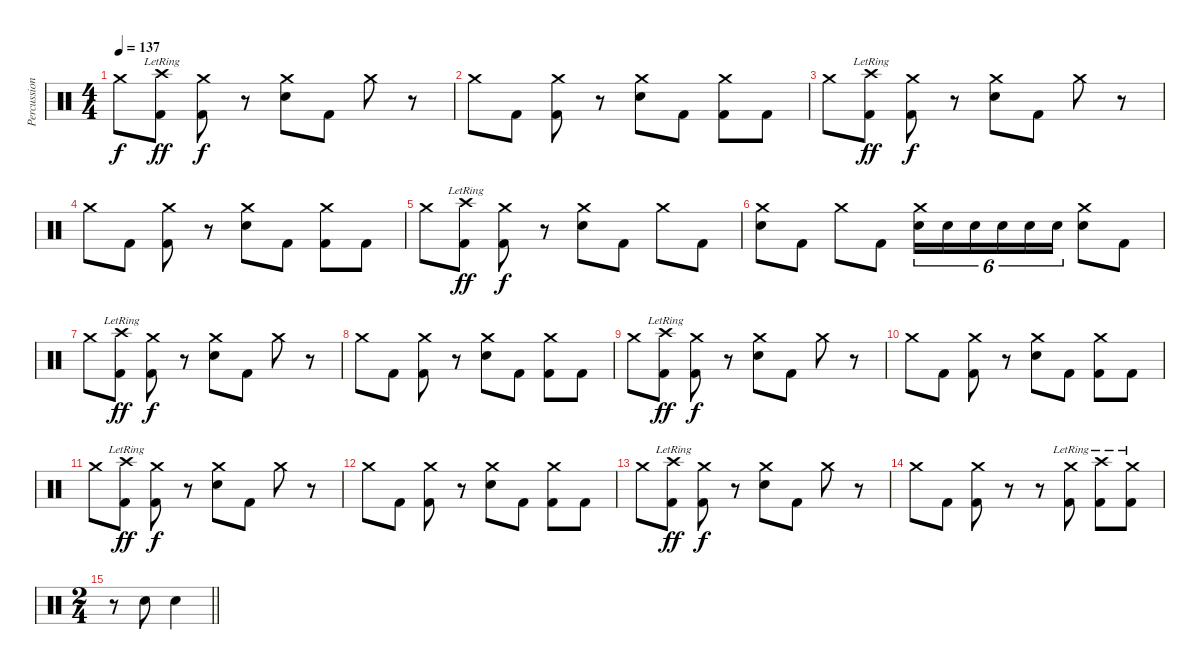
\track ("Percussions" "Percussion") {instrument percussion}
\staff {score}
\articulation defaults
\ts (4 4)
\tempo 137
\clef neutral
\ks c "Crash medium (hit)".8{dy f}
("Crash high (hit)"{lr} "Kick (hit) 2").8{dy ff} ("Crash medium (hit)" "Kick (hit) 2").8{dy f} r.8 ("Crash medium (hit)" "Electric Snare (hit)").8 "Kick (hit) 2".8 "Crash medium (hit)".8 r.8 |
"Crash medium (hit)".8 "Kick (hit) 2".8 ("Crash medium (hit)" "Kick (hit) 2").8 r.8 ("Crash medium (hit)" "Electric Snare (hit)").8 "Kick (hit) 2".8 ("Crash medium (hit)" "Kick (hit) 2").8 "Kick (hit) 2".8 |
"Crash medium (hit)".8 ("Crash high (hit)"{lr} "Kick (hit) 2").8{dy ff} ("Crash medium (hit)" "Kick (hit) 2").8{dy f} r.8 ("Crash medium (hit)" "Electric Snare (hit)").8 "Kick (hit) 2".8 "Crash medium (hit)".8 r.8 |
"Crash medium (hit)".8 "Kick (hit) 2".8 ("Crash medium (hit)" "Kick (hit) 2").8 r.8 ("Crash medium (hit)" "Electric Snare (hit)").8 "Kick (hit) 2".8 ("Crash medium (hit)" "Kick (hit) 2").8 "Kick (hit) 2".8 |
"Crash medium (hit)".8 ("Crash high (hit)"{lr} "Kick (hit) 2").8{dy ff} ("Crash medium (hit)" "Kick (hit) 2").8{dy f} r.8 ("Crash medium (hit)" "Electric Snare (hit)").8 "Kick (hit) 2".8 "Crash medium (hit)".8 "Kick (hit) 2".8 |
("Crash medium (hit)" "Electric Snare (hit)").8 "Kick (hit) 2".8 "Crash medium (hit)".8 "Kick (hit) 2".8 ("Crash medium (hit)" "Electric Snare (hit)").16{tu (6 4)} "Electric Snare (hit)".16{tu (6 4)} "Electric Snare (hit)".16{tu (6 4)} "Electric Snare (hit)".16{tu (6 4)} "Electric Snare (hit)".16{tu (6 4)} "Electric Snare (hit)".16{tu (6 4)} ("Crash medium (hit)" "Electric Snare (hit)").8 "Kick (hit) 2".8 |
"Crash medium (hit)".8 ("Crash high (hit)"{lr} "Kick (hit) 2").8{dy ff} ("Crash medium (hit)" "Kick (hit) 2").8{dy f} r.8 ("Crash medium (hit)" "Electric Snare (hit)").8 "Kick (hit) 2".8 "Crash medium (hit)".8 r.8 |
"Crash medium (hit)".8 "Kick (hit) 2".8 ("Crash medium (hit)" "Kick (hit) 2").8 r.8 ("Crash medium (hit)" "Electric Snare (hit)").8 "Kick (hit) 2".8 ("Crash medium (hit)" "Kick (hit) 2").8 "Kick (hit) 2".8 |
"Crash medium (hit)".8 ("Crash high (hit)"{lr} "Kick (hit) 2").8{dy ff} ("Crash medium (hit)" "Kick (hit) 2").8{dy f} r.8 ("Crash medium (hit)" "Electric Snare (hit)").8 "Kick (hit) 2".8 "Crash medium (hit)".8 r.8 |
"Crash medium (hit)".8 "Kick (hit) 2".8 ("Crash medium (hit)" "Kick (hit) 2").8 r.8 ("Crash medium (hit)" "Electric Snare (hit)").8 "Kick (hit) 2".8 ("Crash medium (hit)" "Kick (hit) 2").8 "Kick (hit) 2".8 |
"Crash medium (hit)".8 ("Crash high (hit)"{lr} "Kick (hit) 2").8{dy ff} ("Crash medium (hit)" "Kick (hit) 2").8{dy f} r.8 ("Crash medium (hit)" "Electric Snare (hit)").8 "Kick (hit) 2".8 "Crash medium (hit)".8 r.8 |
"Crash medium (hit)".8 "Kick (hit) 2".8 ("Crash medium (hit)" "Kick (hit) 2").8 r.8 ("Crash medium (hit)" "Electric Snare (hit)").8 "Kick (hit) 2".8 ("Crash medium (hit)" "Kick (hit) 2").8 "Kick (hit) 2".8 |
"Crash medium (hit)".8 ("Crash high (hit)"{lr} "Kick (hit) 2").8{dy ff} ("Crash medium (hit)" "Kick (hit) 2").8{dy f} r.8 ("Crash medium (hit)" "Electric Snare (hit)").8 "Kick (hit) 2".8 "Crash medium (hit)".8 r.8 |
"Crash medium (hit)".8 "Kick (hit) 2".8 ("Crash medium (hit)" "Kick (hit) 2").8 r.8 r.8 ("Crash medium (hit)"{lr} "Kick (hit) 2").8 ("Crash high (hit)"{lr} "Kick (hit) 2").8 ("Crash medium (hit)"{lr} "Kick (hit) 2").8 |
\ts (2 4)
\barLineRight lightlight
r.8 "Electric Snare (hit)".8 "Electric Snare (hit)".4
